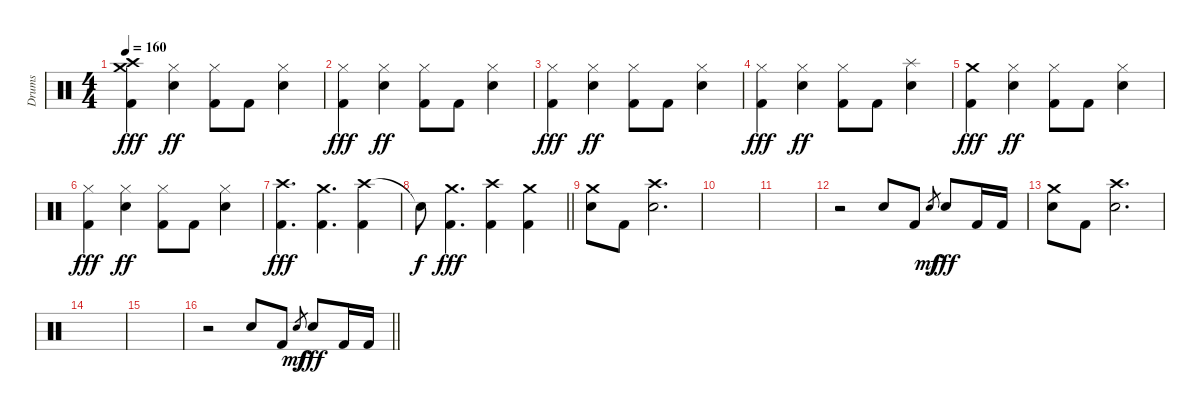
\track ("Drums" "Drums") {instrument percussion}
\staff {score}
\articulation defaults
\ts (4 4)
\tempo 160
\clef neutral
\ks c
("Crash high (hit)" "Crash medium (hit)" "Kick (hit) 2").4{dy fff} ("Hi-Hat (closed)" "Electric Snare (hit)").4{dy ff} ("Hi-Hat (closed)" "Kick (hit) 2").8 "Kick (hit) 2".8 ("Hi-Hat (closed)" "Electric Snare (hit)").4 |
("Hi-Hat (closed)" "Kick (hit) 2").4{dy fff} ("Hi-Hat (closed)" "Electric Snare (hit)").4{dy ff} ("Hi-Hat (closed)" "Kick (hit) 2").8 "Kick (hit) 2".8 ("Hi-Hat (closed)" "Electric Snare (hit)").4 |
("Hi-Hat (closed)" "Kick (hit) 2").4{dy fff} ("Hi-Hat (closed)" "Electric Snare (hit)").4{dy ff} ("Hi-Hat (closed)" "Kick (hit) 2").8 "Kick (hit) 2".8 ("Hi-Hat (closed)" "Electric Snare (hit)").4 |
("Hi-Hat (closed)" "Kick (hit) 2").4{dy fff} ("Hi-Hat (closed)" "Electric Snare (hit)").4{dy ff} ("Hi-Hat (closed)" "Kick (hit) 2").8 "Kick (hit) 2".8 ("Splash (hit)" "Electric Snare (hit)").4 |
("Crash medium (hit)" "Kick (hit) 2").4{dy fff} ("Hi-Hat (closed)" "Electric Snare (hit)").4{dy ff} ("Hi-Hat (closed)" "Kick (hit) 2").8 "Kick (hit) 2".8 ("Hi-Hat (closed)" "Electric Snare (hit)").4 |
("Hi-Hat (closed)" "Kick (hit) 2").4{dy fff} ("Hi-Hat (closed)" "Electric Snare (hit)").4{dy ff} ("Hi-Hat (closed)" "Kick (hit) 2").8 "Kick (hit) 2".8 ("Hi-Hat (closed)" "Electric Snare (hit)").4 |
("Crash high (hit)" "Kick (hit) 2").4{d dy fff} ("Crash medium (hit)" "Kick (hit) 2").4{d} ("Crash high (hit)" "Kick (hit) 2").4 |
\barLineRight lightlight "Snare (hit)"{t}.8{dy f}
("Crash medium (hit)" "Kick (hit) 2").4{d dy fff} ("Crash high (hit)" "Kick (hit) 2").4 ("Crash medium (hit)" "Kick (hit) 2").4 |
("Crash medium (hit)" "Electric Snare (hit)").8 "Kick (hit) 2".8 ("Crash high (hit)" "Electric Snare (hit)").2{d} |
|
|
r.2 "Electric Snare (hit)".8 "Kick (hit) 2".8 "Electric Snare (hit)".8{gr dy mf} "Electric Snare (hit)".8{dy fff} "Kick (hit) 2".16 "Kick (hit) 2".16 |
("Crash medium (hit)" "Electric Snare (hit)").8 "Kick (hit) 2".8 ("Crash high (hit)" "Electric Snare (hit)").2{d} |
|
|
\barLineRight lightlight
r.2 "Electric Snare (hit)".8 "Kick (hit) 2".8 "Electric Snare (hit)".8{gr dy mf} "Electric Snare (hit)".8{dy fff} "Kick (hit) 2".16 "Kick (hit) 2".16
